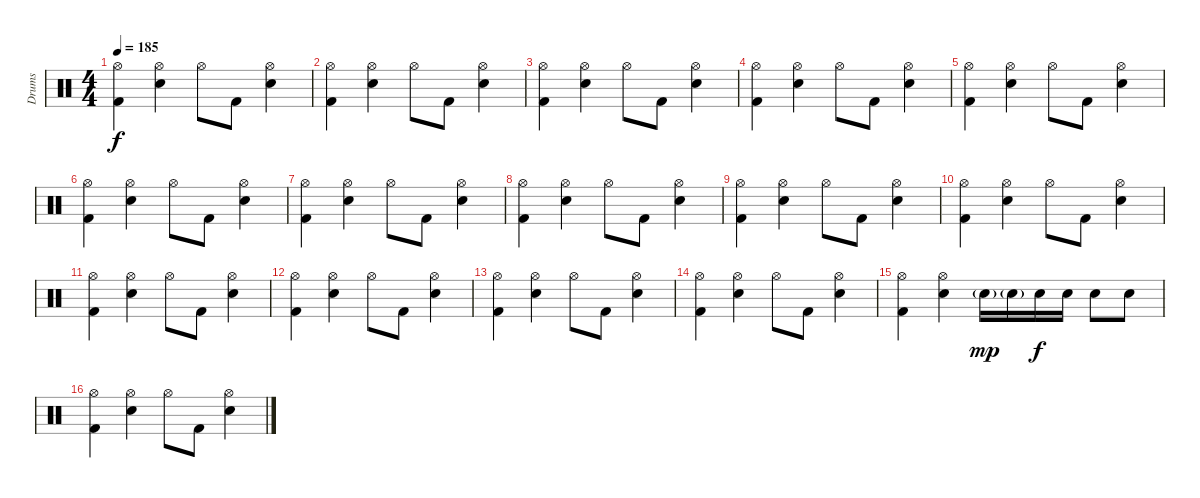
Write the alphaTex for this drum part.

\track ("Drums" "Drums") {instrument percussion}
\staff {score}
\articulation defaults
\ts (4 4)
\tempo 185
\clef neutral
\ks c
("Hi-Hat (open)" "Kick (hit) 2").4{dy f} ("Hi-Hat (open)" "Electric Snare (hit)").4 "Hi-Hat (open)".8 "Kick (hit) 2".8 ("Hi-Hat (open)" "Electric Snare (hit)").4 |
("Hi-Hat (open)" "Kick (hit) 2").4 ("Hi-Hat (open)" "Electric Snare (hit)").4 "Hi-Hat (open)".8 "Kick (hit) 2".8 ("Hi-Hat (open)" "Electric Snare (hit)").4 |
("Hi-Hat (open)" "Kick (hit) 2").4 ("Hi-Hat (open)" "Electric Snare (hit)").4 "Hi-Hat (open)".8 "Kick (hit) 2".8 ("Hi-Hat (open)" "Electric Snare (hit)").4 |
("Hi-Hat (open)" "Kick (hit) 2").4 ("Hi-Hat (open)" "Electric Snare (hit)").4 "Hi-Hat (open)".8 "Kick (hit) 2".8 ("Hi-Hat (open)" "Electric Snare (hit)").4 |
("Hi-Hat (open)" "Kick (hit) 2").4 ("Hi-Hat (open)" "Electric Snare (hit)").4 "Hi-Hat (open)".8 "Kick (hit) 2".8 ("Hi-Hat (open)" "Electric Snare (hit)").4 |
("Hi-Hat (open)" "Kick (hit) 2").4 ("Hi-Hat (open)" "Electric Snare (hit)").4 "Hi-Hat (open)".8 "Kick (hit) 2".8 ("Hi-Hat (open)" "Electric Snare (hit)").4 |
("Hi-Hat (open)" "Kick (hit) 2").4 ("Hi-Hat (open)" "Electric Snare (hit)").4 "Hi-Hat (open)".8 "Kick (hit) 2".8 ("Hi-Hat (open)" "Electric Snare (hit)").4 |
("Hi-Hat (open)" "Kick (hit) 2").4 ("Hi-Hat (open)" "Electric Snare (hit)").4 "Hi-Hat (open)".8 "Kick (hit) 2".8 ("Hi-Hat (open)" "Electric Snare (hit)").4 |
("Hi-Hat (open)" "Kick (hit) 2").4 ("Hi-Hat (open)" "Electric Snare (hit)").4 "Hi-Hat (open)".8 "Kick (hit) 2".8 ("Hi-Hat (open)" "Electric Snare (hit)").4 |
("Hi-Hat (open)" "Kick (hit) 2").4 ("Hi-Hat (open)" "Electric Snare (hit)").4 "Hi-Hat (open)".8 "Kick (hit) 2".8 ("Hi-Hat (open)" "Electric Snare (hit)").4 |
("Hi-Hat (open)" "Kick (hit) 2").4 ("Hi-Hat (open)" "Electric Snare (hit)").4 "Hi-Hat (open)".8 "Kick (hit) 2".8 ("Hi-Hat (open)" "Electric Snare (hit)").4 |
("Hi-Hat (open)" "Kick (hit) 2").4 ("Hi-Hat (open)" "Electric Snare (hit)").4 "Hi-Hat (open)".8 "Kick (hit) 2".8 ("Hi-Hat (open)" "Electric Snare (hit)").4 |
("Hi-Hat (open)" "Kick (hit) 2").4 ("Hi-Hat (open)" "Electric Snare (hit)").4 "Hi-Hat (open)".8 "Kick (hit) 2".8 ("Hi-Hat (open)" "Electric Snare (hit)").4 |
("Hi-Hat (open)" "Kick (hit) 2").4 ("Hi-Hat (open)" "Electric Snare (hit)").4 "Hi-Hat (open)".8 "Kick (hit) 2".8 ("Hi-Hat (open)" "Electric Snare (hit)").4 |
("Hi-Hat (open)" "Kick (hit) 2").4 ("Hi-Hat (open)" "Electric Snare (hit)").4 "Electric Snare (hit)"{g}.16{dy mp} "Electric Snare (hit)"{g}.16 "Electric Snare (hit)".16{dy f} "Electric Snare (hit)".16 "Electric Snare (hit)".8 "Electric Snare (hit)".8 |
("Hi-Hat (open)" "Kick (hit) 2").4 ("Hi-Hat (open)" "Electric Snare (hit)").4 "Hi-Hat (open)".8 "Kick (hit) 2".8 ("Hi-Hat (open)" "Electric Snare (hit)").4
